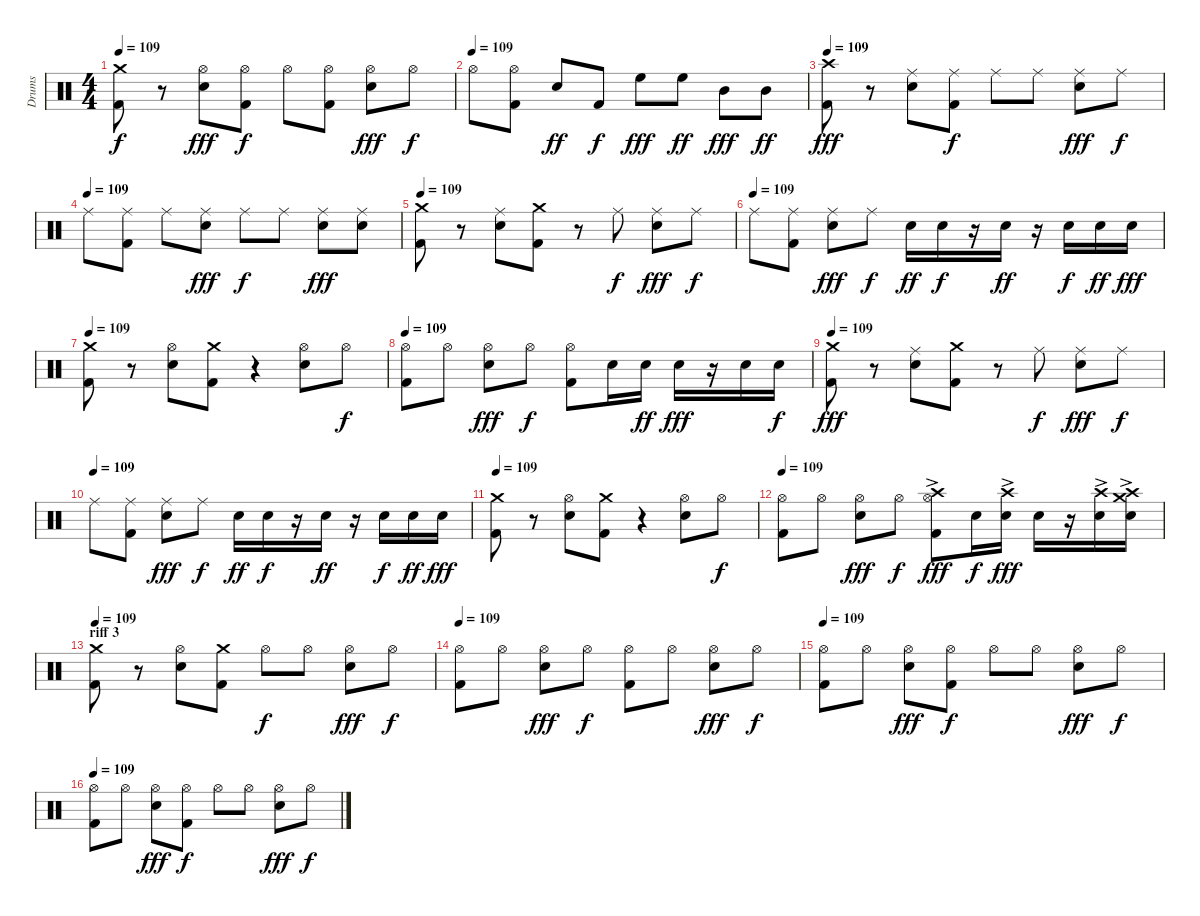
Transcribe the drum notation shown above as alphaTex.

\track ("Drums" "Drums") {instrument percussion}
\staff {score}
\articulation defaults
\ts (4 4)
\tempo 109
\clef neutral
\ks c
("Kick (hit) 2" "Crash medium (hit)").8{dy f} r.8 ("Snare (hit) 2" "Hi-Hat (open)").8{dy fff} ("Kick (hit) 2" "Hi-Hat (open)").8{dy f} "Hi-Hat (open)".8 ("Kick (hit) 2" "Hi-Hat (open)").8 ("Snare (hit) 2" "Hi-Hat (open)").8{dy fff} "Hi-Hat (open)".8{dy f} |
\tempo (109)
"Hi-Hat (open)".8 ("Kick (hit) 2" "Hi-Hat (open)").8 "Snare (hit) 2".8{dy ff} "Kick (hit) 2".8{dy f} "High Floor Tom (hit)".8{dy fff} "High Floor Tom (hit)".8{dy ff} "Mid Tom (hit)".8{dy fff} "Mid Tom (hit)".8{dy ff} |
\tempo 109
("Kick (hit) 2" "Crash high (hit)").8{dy fff} r.8 ("Snare (hit) 2" "Ride (middle)").8 ("Kick (hit) 2" "Ride (middle)").8{dy f} "Ride (middle)".8 "Ride (middle)".8 ("Snare (hit) 2" "Ride (middle)").8{dy fff} "Ride (middle)".8{dy f} |
\tempo (109)
"Ride (middle)".8 ("Kick (hit) 2" "Ride (middle)").8 "Ride (middle)".8 ("Snare (hit) 2" "Ride (middle)").8{dy fff} "Ride (middle)".8{dy f} "Ride (middle)".8 ("Snare (hit) 2" "Ride (middle)").8{dy fff} ("Snare (hit) 2" "Ride (middle)").8 |
\tempo 109
("Kick (hit) 2" "Crash medium (hit)").8 r.8 ("Snare (hit) 2" "Ride (middle)").8 ("Kick (hit) 2" "Crash medium (hit)").8 r.8 "Ride (middle)".8{dy f} ("Snare (hit) 2" "Ride (middle)").8{dy fff} "Ride (middle)".8{dy f} |
\tempo (109)
"Ride (middle)".8 ("Kick (hit) 2" "Ride (middle)").8 ("Snare (hit) 2" "Ride (middle)").8{dy fff} "Ride (middle)".8{dy f} "Snare (hit) 2".16{dy ff} "Snare (hit) 2".16{dy f} r.16 "Snare (hit) 2".16{dy ff} r.16 "Snare (hit) 2".16{dy f} "Snare (hit) 2".16{dy ff} "Snare (hit) 2".16{dy fff} |
\tempo 109
("Kick (hit) 2" "Crash medium (hit)").8 r.8 ("Snare (hit) 2" "Hi-Hat (open)").8 ("Kick (hit) 2" "Crash medium (hit)").8 r.4 ("Snare (hit) 2" "Hi-Hat (open)").8 "Hi-Hat (open)".8{dy f} |
\tempo 109
("Kick (hit) 2" "Hi-Hat (open)").8 "Hi-Hat (open)".8 ("Snare (hit) 2" "Hi-Hat (open)").8{dy fff} "Hi-Hat (open)".8{dy f} ("Kick (hit) 2" "Hi-Hat (open)").8 "Snare (hit) 2".16 "Snare (hit) 2".16{dy ff} "Snare (hit) 2".16{dy fff} r.16 "Snare (hit) 2".16 "Snare (hit) 2".16{dy f} |
\tempo 109
("Kick (hit) 2" "Crash medium (hit)").8{dy fff} r.8 ("Snare (hit) 2" "Ride (middle)").8 ("Kick (hit) 2" "Crash medium (hit)").8 r.8 "Ride (middle)".8{dy f} ("Snare (hit) 2" "Ride (middle)").8{dy fff} "Ride (middle)".8{dy f} |
\tempo (109)
"Ride (middle)".8 ("Kick (hit) 2" "Ride (middle)").8 ("Snare (hit) 2" "Ride (middle)").8{dy fff} "Ride (middle)".8{dy f} "Snare (hit) 2".16{dy ff} "Snare (hit) 2".16{dy f} r.16 "Snare (hit) 2".16{dy ff} r.16 "Snare (hit) 2".16{dy f} "Snare (hit) 2".16{dy ff} "Snare (hit) 2".16{dy fff} |
\tempo 109
("Kick (hit) 2" "Crash medium (hit)").8 r.8 ("Snare (hit) 2" "Hi-Hat (open)").8 ("Kick (hit) 2" "Crash medium (hit)").8 r.4 ("Snare (hit) 2" "Hi-Hat (open)").8 "Hi-Hat (open)".8{dy f} |
\tempo 109
("Kick (hit) 2" "Hi-Hat (open)").8 "Hi-Hat (open)".8 ("Snare (hit) 2" "Hi-Hat (open)").8{dy fff} "Hi-Hat (open)".8{dy f} ("Kick (hit) 2"{ac} "Hi-Hat (open)"{ac} "Crash high (hit)"{ac}).8{dy fff} "Snare (hit) 2".16{dy f} ("Crash high (hit)"{ac} "Snare (hit) 2"{ac}).16{dy fff} "Snare (hit) 2".16 r.16 ("Snare (hit) 2"{ac} "Crash high (hit)"{ac}).16 ("Snare (hit) 2"{ac} "Crash high (hit)"{ac} "Crash medium (hit)"{ac}).16 |
\section ("" "riff 3")
\tempo 109
("Kick (hit) 2" "Crash medium (hit)").8 r.8 ("Snare (hit) 2" "Hi-Hat (open)").8 ("Kick (hit) 2" "Crash medium (hit)").8 "Hi-Hat (open)".8{dy f} "Hi-Hat (open)".8 ("Snare (hit) 2" "Hi-Hat (open)").8{dy fff} "Hi-Hat (open)".8{dy f} |
\tempo 109
("Kick (hit) 2" "Hi-Hat (open)").8 "Hi-Hat (open)".8 ("Snare (hit) 2" "Hi-Hat (open)").8{dy fff} "Hi-Hat (open)".8{dy f} ("Kick (hit) 2" "Hi-Hat (open)").8 "Hi-Hat (open)".8 ("Snare (hit) 2" "Hi-Hat (open)").8{dy fff} "Hi-Hat (open)".8{dy f} |
\tempo 109
("Kick (hit) 2" "Hi-Hat (open)").8 "Hi-Hat (open)".8 ("Snare (hit) 2" "Hi-Hat (open)").8{dy fff} ("Kick (hit) 2" "Hi-Hat (open)").8{dy f} "Hi-Hat (open)".8 "Hi-Hat (open)".8 ("Snare (hit) 2" "Hi-Hat (open)").8{dy fff} "Hi-Hat (open)".8{dy f} |
\tempo 109
("Kick (hit) 2" "Hi-Hat (open)").8 "Hi-Hat (open)".8 ("Snare (hit) 2" "Hi-Hat (open)").8{dy fff} ("Kick (hit) 2" "Hi-Hat (open)").8{dy f} "Hi-Hat (open)".8 "Hi-Hat (open)".8 ("Snare (hit) 2" "Hi-Hat (open)").8{dy fff} "Hi-Hat (open)".8{dy f}
